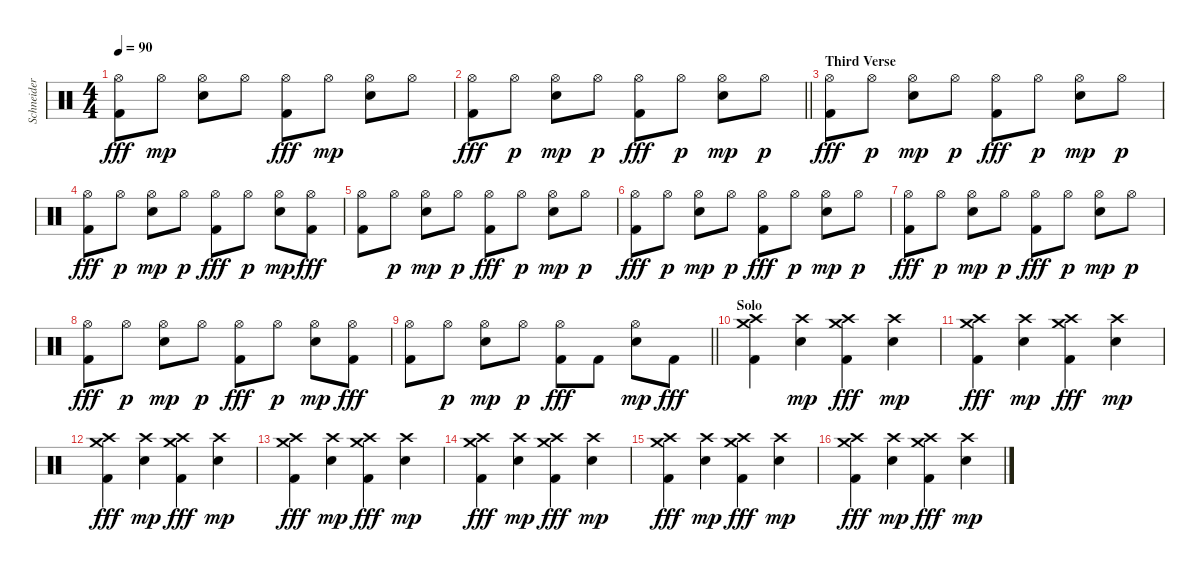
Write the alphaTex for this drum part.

\track ("Schneider" "Schneider") {instrument percussion}
\staff {score}
\articulation defaults
\ts (4 4)
\tempo 90
\clef neutral
\ks c
("Hi-Hat (open)" "Kick (hit) 2").8{dy fff} "Hi-Hat (open)".8{dy mp} ("Hi-Hat (open)" "Electric Snare (hit)").8 "Hi-Hat (open)".8 ("Hi-Hat (open)" "Kick (hit) 2").8{dy fff} "Hi-Hat (open)".8{dy mp} ("Hi-Hat (open)" "Electric Snare (hit)").8 "Hi-Hat (open)".8 |
\barLineRight lightlight
("Hi-Hat (open)" "Kick (hit) 2").8{dy fff} "Hi-Hat (open)".8{dy p} ("Hi-Hat (open)" "Electric Snare (hit)").8{dy mp} "Hi-Hat (open)".8{dy p} ("Hi-Hat (open)" "Kick (hit) 2").8{dy fff} "Hi-Hat (open)".8{dy p} ("Hi-Hat (open)" "Electric Snare (hit)").8{dy mp} "Hi-Hat (open)".8{dy p} |
\section ("" "Third Verse")
("Hi-Hat (open)" "Kick (hit) 2").8{dy fff} "Hi-Hat (open)".8{dy p} ("Hi-Hat (open)" "Electric Snare (hit)").8{dy mp} "Hi-Hat (open)".8{dy p} ("Hi-Hat (open)" "Kick (hit) 2").8{dy fff} "Hi-Hat (open)".8{dy p} ("Hi-Hat (open)" "Electric Snare (hit)").8{dy mp} "Hi-Hat (open)".8{dy p} |
("Hi-Hat (open)" "Kick (hit) 2").8{dy fff} "Hi-Hat (open)".8{dy p} ("Hi-Hat (open)" "Electric Snare (hit)").8{dy mp} "Hi-Hat (open)".8{dy p} ("Hi-Hat (open)" "Kick (hit) 2").8{dy fff} "Hi-Hat (open)".8{dy p} ("Hi-Hat (open)" "Electric Snare (hit)").8{dy mp} ("Hi-Hat (open)" "Kick (hit) 2").8{dy fff} |
("Hi-Hat (open)" "Kick (hit) 2").8 "Hi-Hat (open)".8{dy p} ("Hi-Hat (open)" "Electric Snare (hit)").8{dy mp} "Hi-Hat (open)".8{dy p} ("Hi-Hat (open)" "Kick (hit) 2").8{dy fff} "Hi-Hat (open)".8{dy p} ("Hi-Hat (open)" "Electric Snare (hit)").8{dy mp} "Hi-Hat (open)".8{dy p} |
("Hi-Hat (open)" "Kick (hit) 2").8{dy fff} "Hi-Hat (open)".8{dy p} ("Hi-Hat (open)" "Electric Snare (hit)").8{dy mp} "Hi-Hat (open)".8{dy p} ("Hi-Hat (open)" "Kick (hit) 2").8{dy fff} "Hi-Hat (open)".8{dy p} ("Hi-Hat (open)" "Electric Snare (hit)").8{dy mp} "Hi-Hat (open)".8{dy p} |
("Hi-Hat (open)" "Kick (hit) 2").8{dy fff} "Hi-Hat (open)".8{dy p} ("Hi-Hat (open)" "Electric Snare (hit)").8{dy mp} "Hi-Hat (open)".8{dy p} ("Hi-Hat (open)" "Kick (hit) 2").8{dy fff} "Hi-Hat (open)".8{dy p} ("Hi-Hat (open)" "Electric Snare (hit)").8{dy mp} "Hi-Hat (open)".8{dy p} |
("Hi-Hat (open)" "Kick (hit) 2").8{dy fff} "Hi-Hat (open)".8{dy p} ("Hi-Hat (open)" "Electric Snare (hit)").8{dy mp} "Hi-Hat (open)".8{dy p} ("Hi-Hat (open)" "Kick (hit) 2").8{dy fff} "Hi-Hat (open)".8{dy p} ("Hi-Hat (open)" "Electric Snare (hit)").8{dy mp} ("Hi-Hat (open)" "Kick (hit) 2").8{dy fff} |
\barLineRight lightlight
("Hi-Hat (open)" "Kick (hit) 2").8 "Hi-Hat (open)".8{dy p} ("Hi-Hat (open)" "Electric Snare (hit)").8{dy mp} "Hi-Hat (open)".8{dy p} ("Hi-Hat (open)" "Kick (hit) 2").8{dy fff} "Kick (hit) 2".8 ("Hi-Hat (open)" "Electric Snare (hit)").8{dy mp} "Kick (hit) 2".8{dy fff} |
\section ("" "Solo")
("Crash high (hit)" "Crash medium (hit)" "Kick (hit) 2").4 ("Crash high (hit)" "Electric Snare (hit)").4{dy mp} ("Crash high (hit)" "Crash medium (hit)" "Kick (hit) 2").4{dy fff} ("Crash high (hit)" "Electric Snare (hit)").4{dy mp} |
("Crash high (hit)" "Crash medium (hit)" "Kick (hit) 2").4{dy fff} ("Crash high (hit)" "Electric Snare (hit)").4{dy mp} ("Crash high (hit)" "Crash medium (hit)" "Kick (hit) 2").4{dy fff} ("Crash high (hit)" "Electric Snare (hit)").4{dy mp} |
("Crash high (hit)" "Crash medium (hit)" "Kick (hit) 2").4{dy fff} ("Crash high (hit)" "Electric Snare (hit)").4{dy mp} ("Crash high (hit)" "Crash medium (hit)" "Kick (hit) 2").4{dy fff} ("Crash high (hit)" "Electric Snare (hit)").4{dy mp} |
("Crash high (hit)" "Crash medium (hit)" "Kick (hit) 2").4{dy fff} ("Crash high (hit)" "Electric Snare (hit)").4{dy mp} ("Crash high (hit)" "Crash medium (hit)" "Kick (hit) 2").4{dy fff} ("Crash high (hit)" "Electric Snare (hit)").4{dy mp} |
("Crash high (hit)" "Crash medium (hit)" "Kick (hit) 2").4{dy fff} ("Crash high (hit)" "Electric Snare (hit)").4{dy mp} ("Crash high (hit)" "Crash medium (hit)" "Kick (hit) 2").4{dy fff} ("Crash high (hit)" "Electric Snare (hit)").4{dy mp} |
("Crash high (hit)" "Crash medium (hit)" "Kick (hit) 2").4{dy fff} ("Crash high (hit)" "Electric Snare (hit)").4{dy mp} ("Crash high (hit)" "Crash medium (hit)" "Kick (hit) 2").4{dy fff} ("Crash high (hit)" "Electric Snare (hit)").4{dy mp} |
("Crash high (hit)" "Crash medium (hit)" "Kick (hit) 2").4{dy fff} ("Crash high (hit)" "Electric Snare (hit)").4{dy mp} ("Crash high (hit)" "Crash medium (hit)" "Kick (hit) 2").4{dy fff} ("Crash high (hit)" "Electric Snare (hit)").4{dy mp}
